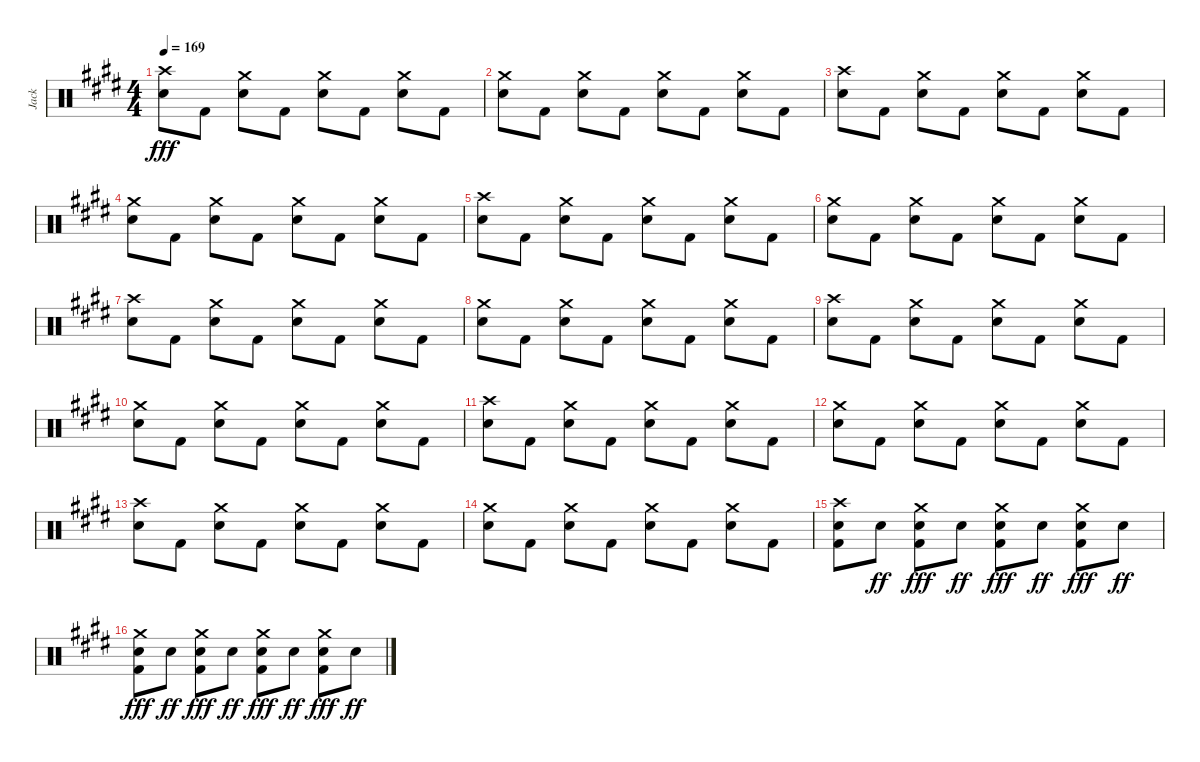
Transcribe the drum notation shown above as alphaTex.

\track ("Jack" "Jack") {instrument percussion}
\staff {score}
\articulation defaults
\ts (4 4)
\tempo 169
\clef neutral
\ks c#minor
("Crash high (hit)" "Electric Snare (hit)").8{dy fff} "Kick (hit) 2".8 ("Crash medium (hit)" "Electric Snare (hit)").8 "Kick (hit) 2".8 ("Crash medium (hit)" "Electric Snare (hit)").8 "Kick (hit) 2".8 ("Crash medium (hit)" "Electric Snare (hit)").8 "Kick (hit) 2".8 |
("Crash medium (hit)" "Electric Snare (hit)").8 "Kick (hit) 2".8 ("Crash medium (hit)" "Electric Snare (hit)").8 "Kick (hit) 2".8 ("Crash medium (hit)" "Electric Snare (hit)").8 "Kick (hit) 2".8 ("Crash medium (hit)" "Electric Snare (hit)").8 "Kick (hit) 2".8 |
("Crash high (hit)" "Electric Snare (hit)").8 "Kick (hit) 2".8 ("Crash medium (hit)" "Electric Snare (hit)").8 "Kick (hit) 2".8 ("Crash medium (hit)" "Electric Snare (hit)").8 "Kick (hit) 2".8 ("Crash medium (hit)" "Electric Snare (hit)").8 "Kick (hit) 2".8 |
("Crash medium (hit)" "Electric Snare (hit)").8 "Kick (hit) 2".8 ("Crash medium (hit)" "Electric Snare (hit)").8 "Kick (hit) 2".8 ("Crash medium (hit)" "Electric Snare (hit)").8 "Kick (hit) 2".8 ("Crash medium (hit)" "Electric Snare (hit)").8 "Kick (hit) 2".8 |
("Crash high (hit)" "Electric Snare (hit)").8 "Kick (hit) 2".8 ("Crash medium (hit)" "Electric Snare (hit)").8 "Kick (hit) 2".8 ("Crash medium (hit)" "Electric Snare (hit)").8 "Kick (hit) 2".8 ("Crash medium (hit)" "Electric Snare (hit)").8 "Kick (hit) 2".8 |
("Crash medium (hit)" "Electric Snare (hit)").8 "Kick (hit) 2".8 ("Crash medium (hit)" "Electric Snare (hit)").8 "Kick (hit) 2".8 ("Crash medium (hit)" "Electric Snare (hit)").8 "Kick (hit) 2".8 ("Crash medium (hit)" "Electric Snare (hit)").8 "Kick (hit) 2".8 |
("Crash high (hit)" "Electric Snare (hit)").8 "Kick (hit) 2".8 ("Crash medium (hit)" "Electric Snare (hit)").8 "Kick (hit) 2".8 ("Crash medium (hit)" "Electric Snare (hit)").8 "Kick (hit) 2".8 ("Crash medium (hit)" "Electric Snare (hit)").8 "Kick (hit) 2".8 |
("Crash medium (hit)" "Electric Snare (hit)").8 "Kick (hit) 2".8 ("Crash medium (hit)" "Electric Snare (hit)").8 "Kick (hit) 2".8 ("Crash medium (hit)" "Electric Snare (hit)").8 "Kick (hit) 2".8 ("Crash medium (hit)" "Electric Snare (hit)").8 "Kick (hit) 2".8 |
("Crash high (hit)" "Electric Snare (hit)").8 "Kick (hit) 2".8 ("Crash medium (hit)" "Electric Snare (hit)").8 "Kick (hit) 2".8 ("Crash medium (hit)" "Electric Snare (hit)").8 "Kick (hit) 2".8 ("Crash medium (hit)" "Electric Snare (hit)").8 "Kick (hit) 2".8 |
("Crash medium (hit)" "Electric Snare (hit)").8 "Kick (hit) 2".8 ("Crash medium (hit)" "Electric Snare (hit)").8 "Kick (hit) 2".8 ("Crash medium (hit)" "Electric Snare (hit)").8 "Kick (hit) 2".8 ("Crash medium (hit)" "Electric Snare (hit)").8 "Kick (hit) 2".8 |
("Crash high (hit)" "Electric Snare (hit)").8 "Kick (hit) 2".8 ("Crash medium (hit)" "Electric Snare (hit)").8 "Kick (hit) 2".8 ("Crash medium (hit)" "Electric Snare (hit)").8 "Kick (hit) 2".8 ("Crash medium (hit)" "Electric Snare (hit)").8 "Kick (hit) 2".8 |
("Crash medium (hit)" "Electric Snare (hit)").8 "Kick (hit) 2".8 ("Crash medium (hit)" "Electric Snare (hit)").8 "Kick (hit) 2".8 ("Crash medium (hit)" "Electric Snare (hit)").8 "Kick (hit) 2".8 ("Crash medium (hit)" "Electric Snare (hit)").8 "Kick (hit) 2".8 |
("Crash high (hit)" "Electric Snare (hit)").8 "Kick (hit) 2".8 ("Crash medium (hit)" "Electric Snare (hit)").8 "Kick (hit) 2".8 ("Crash medium (hit)" "Electric Snare (hit)").8 "Kick (hit) 2".8 ("Crash medium (hit)" "Electric Snare (hit)").8 "Kick (hit) 2".8 |
("Crash medium (hit)" "Electric Snare (hit)").8 "Kick (hit) 2".8 ("Crash medium (hit)" "Electric Snare (hit)").8 "Kick (hit) 2".8 ("Crash medium (hit)" "Electric Snare (hit)").8 "Kick (hit) 2".8 ("Crash medium (hit)" "Electric Snare (hit)").8 "Kick (hit) 2".8 |
("Crash high (hit)" "Electric Snare (hit)" "Kick (hit) 2").8 "Electric Snare (hit)".8{dy ff} ("Crash medium (hit)" "Electric Snare (hit)" "Kick (hit) 2").8{dy fff} "Electric Snare (hit)".8{dy ff} ("Crash medium (hit)" "Electric Snare (hit)" "Kick (hit) 2").8{dy fff} "Electric Snare (hit)".8{dy ff} ("Crash medium (hit)" "Electric Snare (hit)" "Kick (hit) 2").8{dy fff} "Electric Snare (hit)".8{dy ff} |
("Crash medium (hit)" "Electric Snare (hit)" "Kick (hit) 2").8{dy fff} "Electric Snare (hit)".8{dy ff} ("Crash medium (hit)" "Electric Snare (hit)" "Kick (hit) 2").8{dy fff} "Electric Snare (hit)".8{dy ff} ("Crash medium (hit)" "Electric Snare (hit)" "Kick (hit) 2").8{dy fff} "Electric Snare (hit)".8{dy ff} ("Crash medium (hit)" "Electric Snare (hit)" "Kick (hit) 2").8{dy fff} "Electric Snare (hit)".8{dy ff}
